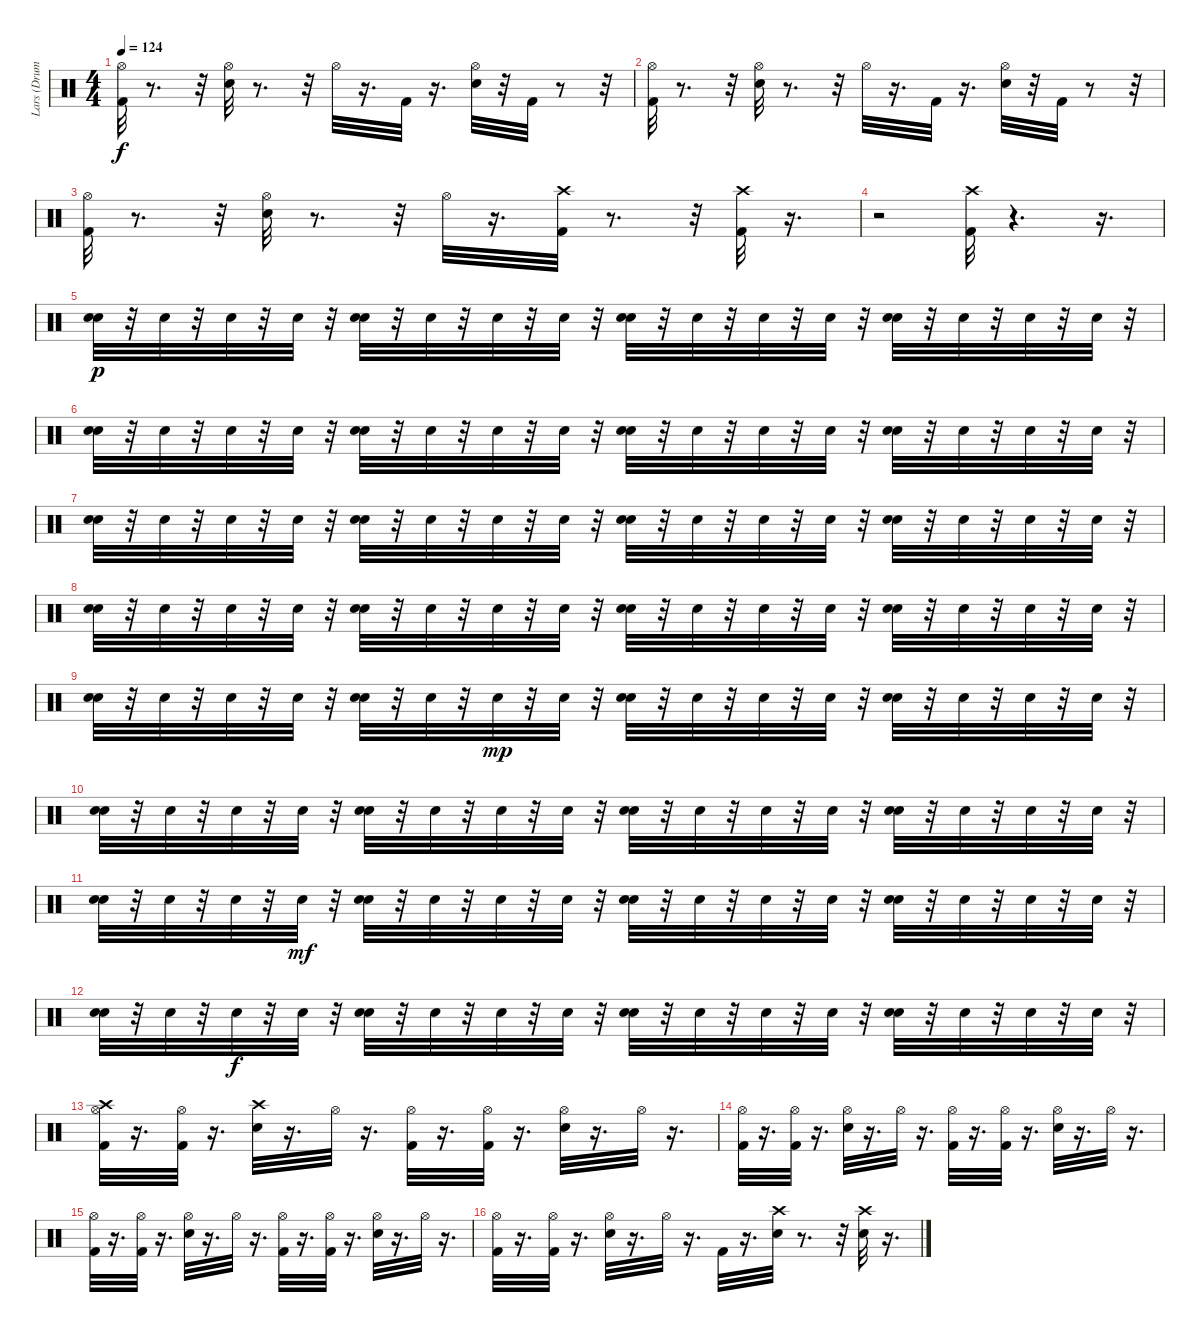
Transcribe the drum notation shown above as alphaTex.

\track ("Lars (Drums)" "Lars (Drum") {instrument percussion}
\staff {score}
\articulation defaults
\ts (4 4)
\tempo 124
\clef neutral
\ks c
("Kick (hit) 2" "Hi-Hat (open)").32{dy f} r.8{d} r.32 ("Electric Snare (hit)" "Hi-Hat (open)").32 r.8{d} r.32 "Hi-Hat (open)".32 r.16{d} "Kick (hit) 2".32 r.16{d} ("Electric Snare (hit)" "Hi-Hat (open)").32 r.32 "Kick (hit) 2".32 r.8 r.32 |
("Kick (hit) 2" "Hi-Hat (open)").32 r.8{d} r.32 ("Electric Snare (hit)" "Hi-Hat (open)").32 r.8{d} r.32 "Hi-Hat (open)".32 r.16{d} "Kick (hit) 2".32 r.16{d} ("Electric Snare (hit)" "Hi-Hat (open)").32 r.32 "Kick (hit) 2".32 r.8 r.32 |
("Kick (hit) 2" "Hi-Hat (open)").32 r.8{d} r.32 ("Electric Snare (hit)" "Hi-Hat (open)").32 r.8{d} r.32 "Hi-Hat (open)".32 r.16{d} ("Crash high (hit)" "Kick (hit) 2").32 r.8{d} r.32 ("Crash high (hit)" "Kick (hit) 2").32 r.16{d} |
r.2 ("Crash high (hit)" "Kick (hit) 2").32 r.4{d} r.16{d} |
("Electric Snare (hit)" "Snare (hit) 2").32{dy p} r.32 "Snare (hit) 2".32 r.32 "Snare (hit) 2".32 r.32 "Snare (hit) 2".32 r.32 ("Snare (hit) 2" "Electric Snare (hit)").32 r.32 "Snare (hit) 2".32 r.32 "Snare (hit) 2".32 r.32 "Snare (hit) 2".32 r.32 ("Electric Snare (hit)" "Snare (hit) 2").32 r.32 "Snare (hit) 2".32 r.32 "Snare (hit) 2".32 r.32 "Snare (hit) 2".32 r.32 ("Snare (hit) 2" "Electric Snare (hit)").32 r.32 "Snare (hit) 2".32 r.32 "Snare (hit) 2".32 r.32 "Snare (hit) 2".32 r.32 |
("Electric Snare (hit)" "Snare (hit) 2").32 r.32 "Snare (hit) 2".32 r.32 "Snare (hit) 2".32 r.32 "Snare (hit) 2".32 r.32 ("Snare (hit) 2" "Electric Snare (hit)").32 r.32 "Snare (hit) 2".32 r.32 "Snare (hit) 2".32 r.32 "Snare (hit) 2".32 r.32 ("Electric Snare (hit)" "Snare (hit) 2").32 r.32 "Snare (hit) 2".32 r.32 "Snare (hit) 2".32 r.32 "Snare (hit) 2".32 r.32 ("Snare (hit) 2" "Electric Snare (hit)").32 r.32 "Snare (hit) 2".32 r.32 "Snare (hit) 2".32 r.32 "Snare (hit) 2".32 r.32 |
("Electric Snare (hit)" "Snare (hit) 2").32 r.32 "Snare (hit) 2".32 r.32 "Snare (hit) 2".32 r.32 "Snare (hit) 2".32 r.32 ("Snare (hit) 2" "Electric Snare (hit)").32 r.32 "Snare (hit) 2".32 r.32 "Snare (hit) 2".32 r.32 "Snare (hit) 2".32 r.32 ("Electric Snare (hit)" "Snare (hit) 2").32 r.32 "Snare (hit) 2".32 r.32 "Snare (hit) 2".32 r.32 "Snare (hit) 2".32 r.32 ("Snare (hit) 2" "Electric Snare (hit)").32 r.32 "Snare (hit) 2".32 r.32 "Snare (hit) 2".32 r.32 "Snare (hit) 2".32 r.32 |
("Electric Snare (hit)" "Snare (hit) 2").32 r.32 "Snare (hit) 2".32 r.32 "Snare (hit) 2".32 r.32 "Snare (hit) 2".32 r.32 ("Snare (hit) 2" "Electric Snare (hit)").32 r.32 "Snare (hit) 2".32 r.32 "Snare (hit) 2".32 r.32 "Snare (hit) 2".32 r.32 ("Electric Snare (hit)" "Snare (hit) 2").32 r.32 "Snare (hit) 2".32 r.32 "Snare (hit) 2".32 r.32 "Snare (hit) 2".32 r.32 ("Snare (hit) 2" "Electric Snare (hit)").32 r.32 "Snare (hit) 2".32 r.32 "Snare (hit) 2".32 r.32 "Snare (hit) 2".32 r.32 |
("Electric Snare (hit)" "Snare (hit) 2").32 r.32 "Snare (hit) 2".32 r.32 "Snare (hit) 2".32 r.32 "Snare (hit) 2".32 r.32 ("Snare (hit) 2" "Electric Snare (hit)").32 r.32 "Snare (hit) 2".32 r.32 "Snare (hit) 2".32{dy mp} r.32 "Snare (hit) 2".32 r.32 ("Electric Snare (hit)" "Snare (hit) 2").32 r.32 "Snare (hit) 2".32 r.32 "Snare (hit) 2".32 r.32 "Snare (hit) 2".32 r.32 ("Snare (hit) 2" "Electric Snare (hit)").32 r.32 "Snare (hit) 2".32 r.32 "Snare (hit) 2".32 r.32 "Snare (hit) 2".32 r.32 |
("Electric Snare (hit)" "Snare (hit) 2").32 r.32 "Snare (hit) 2".32 r.32 "Snare (hit) 2".32 r.32 "Snare (hit) 2".32 r.32 ("Snare (hit) 2" "Electric Snare (hit)").32 r.32 "Snare (hit) 2".32 r.32 "Snare (hit) 2".32 r.32 "Snare (hit) 2".32 r.32 ("Electric Snare (hit)" "Snare (hit) 2").32 r.32 "Snare (hit) 2".32 r.32 "Snare (hit) 2".32 r.32 "Snare (hit) 2".32 r.32 ("Snare (hit) 2" "Electric Snare (hit)").32 r.32 "Snare (hit) 2".32 r.32 "Snare (hit) 2".32 r.32 "Snare (hit) 2".32 r.32 |
("Electric Snare (hit)" "Snare (hit) 2").32 r.32 "Snare (hit) 2".32 r.32 "Snare (hit) 2".32 r.32 "Snare (hit) 2".32{dy mf} r.32 ("Snare (hit) 2" "Electric Snare (hit)").32 r.32 "Snare (hit) 2".32 r.32 "Snare (hit) 2".32 r.32 "Snare (hit) 2".32 r.32 ("Electric Snare (hit)" "Snare (hit) 2").32 r.32 "Snare (hit) 2".32 r.32 "Snare (hit) 2".32 r.32 "Snare (hit) 2".32 r.32 ("Snare (hit) 2" "Electric Snare (hit)").32 r.32 "Snare (hit) 2".32 r.32 "Snare (hit) 2".32 r.32 "Snare (hit) 2".32 r.32 |
("Electric Snare (hit)" "Snare (hit) 2").32 r.32 "Snare (hit) 2".32 r.32 "Snare (hit) 2".32{dy f} r.32 "Snare (hit) 2".32 r.32 ("Snare (hit) 2" "Electric Snare (hit)").32 r.32 "Snare (hit) 2".32 r.32 "Snare (hit) 2".32 r.32 "Snare (hit) 2".32 r.32 ("Electric Snare (hit)" "Snare (hit) 2").32 r.32 "Snare (hit) 2".32 r.32 "Snare (hit) 2".32 r.32 "Snare (hit) 2".32 r.32 ("Snare (hit) 2" "Electric Snare (hit)").32 r.32 "Snare (hit) 2".32 r.32 "Snare (hit) 2".32 r.32 "Snare (hit) 2".32 r.32 |
("Crash high (hit)" "Kick (hit) 2" "Hi-Hat (open)").32 r.16{d} ("Hi-Hat (open)" "Kick (hit) 2").32 r.16{d} ("Crash high (hit)" "Electric Snare (hit)").32 r.16{d} "Hi-Hat (open)".32 r.16{d} ("Kick (hit) 2" "Hi-Hat (open)").32 r.16{d} ("Hi-Hat (open)" "Kick (hit) 2").32 r.16{d} ("Hi-Hat (open)" "Electric Snare (hit)").32 r.16{d} "Hi-Hat (open)".32 r.16{d} |
("Kick (hit) 2" "Hi-Hat (open)").32 r.16{d} ("Kick (hit) 2" "Hi-Hat (open)").32 r.16{d} ("Electric Snare (hit)" "Hi-Hat (open)").32 r.16{d} "Hi-Hat (open)".32 r.16{d} ("Kick (hit) 2" "Hi-Hat (open)").32 r.16{d} ("Kick (hit) 2" "Hi-Hat (open)").32 r.16{d} ("Electric Snare (hit)" "Hi-Hat (open)").32 r.16{d} "Hi-Hat (open)".32 r.16{d} |
("Kick (hit) 2" "Hi-Hat (open)").32 r.16{d} ("Kick (hit) 2" "Hi-Hat (open)").32 r.16{d} ("Electric Snare (hit)" "Hi-Hat (open)").32 r.16{d} "Hi-Hat (open)".32 r.16{d} ("Kick (hit) 2" "Hi-Hat (open)").32 r.16{d} ("Kick (hit) 2" "Hi-Hat (open)").32 r.16{d} ("Electric Snare (hit)" "Hi-Hat (open)").32 r.16{d} "Hi-Hat (open)".32 r.16{d} |
("Kick (hit) 2" "Hi-Hat (open)").32 r.16{d} ("Kick (hit) 2" "Hi-Hat (open)").32 r.16{d} ("Electric Snare (hit)" "Hi-Hat (open)").32 r.16{d} "Hi-Hat (open)".32 r.16{d} "Kick (hit) 2".32 r.16{d} ("Crash high (hit)" "Electric Snare (hit)").32 r.8{d} r.32 ("Crash high (hit)" "Electric Snare (hit)").32 r.16{d}
